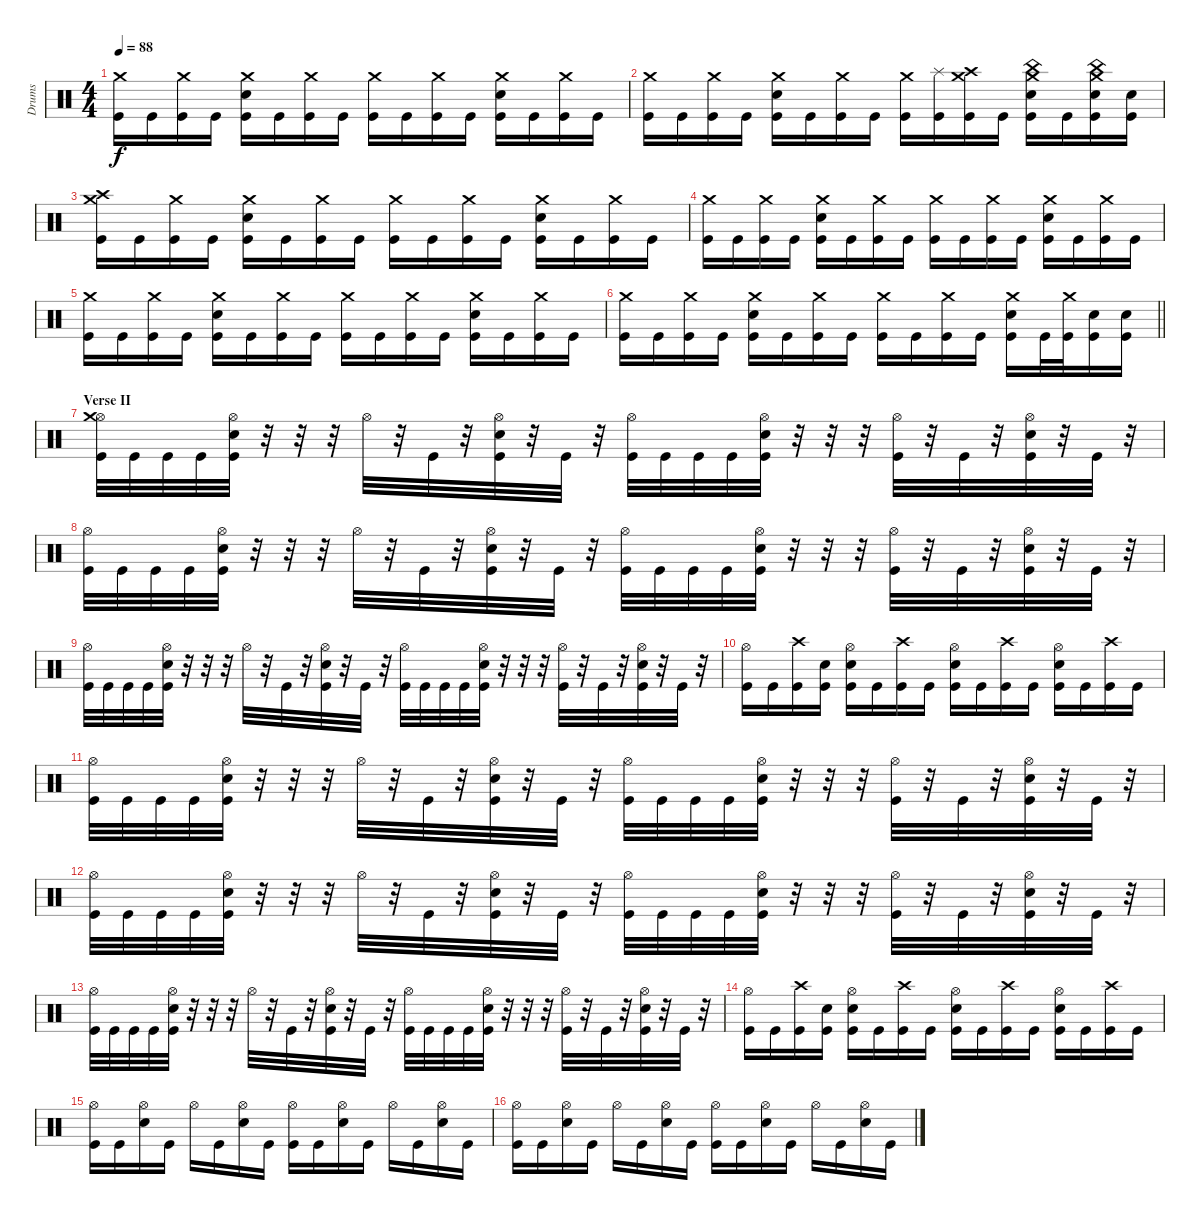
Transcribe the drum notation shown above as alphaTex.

\track ("Drums" "Drums") {instrument percussion}
\staff {score}
\articulation defaults
\ts (4 4)
\tempo 88
\clef neutral
\ks c
("Crash medium (hit)" "Kick (hit)").16{dy f} "Kick (hit)".16 ("Crash medium (hit)" "Kick (hit)").16 "Kick (hit)".16 ("Crash medium (hit)" "Electric Snare (hit)" "Kick (hit)").16 "Kick (hit)".16 ("Crash medium (hit)" "Kick (hit)").16 "Kick (hit)".16 ("Crash medium (hit)" "Kick (hit)").16 "Kick (hit)".16 ("Crash medium (hit)" "Kick (hit)").16 "Kick (hit)".16 ("Crash medium (hit)" "Electric Snare (hit)" "Kick (hit)").16 "Kick (hit)".16 ("Crash medium (hit)" "Kick (hit)").16 "Kick (hit)".16 |
("Crash medium (hit)" "Kick (hit)").16 "Kick (hit)".16 ("Crash medium (hit)" "Kick (hit)").16 "Kick (hit)".16 ("Crash medium (hit)" "Electric Snare (hit)" "Kick (hit)").16 "Kick (hit)".16 ("Crash medium (hit)" "Kick (hit)").16 "Kick (hit)".16 ("Crash medium (hit)" "Kick (hit)").16 ("Splash (hit)" "Kick (hit)").16 ("Crash medium (hit)" "Crash high (hit)" "Kick (hit)").16 "Kick (hit)".16 ("Crash medium (hit)" "China (hit)" "Electric Snare (hit)" "Kick (hit)").16 "Kick (hit)".16 ("Crash medium (hit)" "China (hit)" "Electric Snare (hit)" "Kick (hit)").16 ("Electric Snare (hit)" "Kick (hit)").16 |
("Crash medium (hit)" "Crash high (hit)" "Kick (hit)").16 "Kick (hit)".16 ("Crash medium (hit)" "Kick (hit)").16 "Kick (hit)".16 ("Crash medium (hit)" "Electric Snare (hit)" "Kick (hit)").16 "Kick (hit)".16 ("Crash medium (hit)" "Kick (hit)").16 "Kick (hit)".16 ("Crash medium (hit)" "Kick (hit)").16 "Kick (hit)".16 ("Crash medium (hit)" "Kick (hit)").16 "Kick (hit)".16 ("Crash medium (hit)" "Electric Snare (hit)" "Kick (hit)").16 "Kick (hit)".16 ("Crash medium (hit)" "Kick (hit)").16 "Kick (hit)".16 |
("Crash medium (hit)" "Kick (hit)").16 "Kick (hit)".16 ("Crash medium (hit)" "Kick (hit)").16 "Kick (hit)".16 ("Crash medium (hit)" "Electric Snare (hit)" "Kick (hit)").16 "Kick (hit)".16 ("Crash medium (hit)" "Kick (hit)").16 "Kick (hit)".16 ("Crash medium (hit)" "Kick (hit)").16 "Kick (hit)".16 ("Crash medium (hit)" "Kick (hit)").16 "Kick (hit)".16 ("Crash medium (hit)" "Electric Snare (hit)" "Kick (hit)").16 "Kick (hit)".16 ("Crash medium (hit)" "Kick (hit)").16 "Kick (hit)".16 |
("Crash medium (hit)" "Kick (hit)").16 "Kick (hit)".16 ("Crash medium (hit)" "Kick (hit)").16 "Kick (hit)".16 ("Crash medium (hit)" "Electric Snare (hit)" "Kick (hit)").16 "Kick (hit)".16 ("Crash medium (hit)" "Kick (hit)").16 "Kick (hit)".16 ("Crash medium (hit)" "Kick (hit)").16 "Kick (hit)".16 ("Crash medium (hit)" "Kick (hit)").16 "Kick (hit)".16 ("Crash medium (hit)" "Electric Snare (hit)" "Kick (hit)").16 "Kick (hit)".16 ("Crash medium (hit)" "Kick (hit)").16 "Kick (hit)".16 |
\barLineRight lightlight
("Crash medium (hit)" "Kick (hit)").16 "Kick (hit)".16 ("Crash medium (hit)" "Kick (hit)").16 "Kick (hit)".16 ("Crash medium (hit)" "Electric Snare (hit)" "Kick (hit)").16 "Kick (hit)".16 ("Crash medium (hit)" "Kick (hit)").16 "Kick (hit)".16 ("Crash medium (hit)" "Kick (hit)").16 "Kick (hit)".16 ("Crash medium (hit)" "Kick (hit)").16 "Kick (hit)".16 ("Crash medium (hit)" "Electric Snare (hit)" "Kick (hit)").16 "Kick (hit)".32 ("Crash medium (hit)" "Kick (hit)").32 ("Electric Snare (hit)" "Kick (hit)").16 ("Electric Snare (hit)" "Kick (hit)").16 |
\section ("" "Verse II")
("Hi-Hat (open)" "Crash medium (hit)" "Kick (hit)").32 "Kick (hit)".32 "Kick (hit)".32 "Kick (hit)".32 ("Hi-Hat (open)" "Electric Snare (hit)" "Kick (hit)").32 r.32 r.32 r.32 "Hi-Hat (open)".32 r.32 "Kick (hit)".32 r.32 ("Hi-Hat (open)" "Electric Snare (hit)" "Kick (hit)").32 r.32 "Kick (hit)".32 r.32 ("Hi-Hat (open)" "Kick (hit)").32 "Kick (hit)".32 "Kick (hit)".32 "Kick (hit)".32 ("Hi-Hat (open)" "Electric Snare (hit)" "Kick (hit)").32 r.32 r.32 r.32 ("Hi-Hat (open)" "Kick (hit)").32 r.32 "Kick (hit)".32 r.32 ("Hi-Hat (open)" "Electric Snare (hit)" "Kick (hit)").32 r.32 "Kick (hit)".32 r.32 |
("Hi-Hat (open)" "Kick (hit)").32 "Kick (hit)".32 "Kick (hit)".32 "Kick (hit)".32 ("Hi-Hat (open)" "Electric Snare (hit)" "Kick (hit)").32 r.32 r.32 r.32 "Hi-Hat (open)".32 r.32 "Kick (hit)".32 r.32 ("Hi-Hat (open)" "Electric Snare (hit)" "Kick (hit)").32 r.32 "Kick (hit)".32 r.32 ("Hi-Hat (open)" "Kick (hit)").32 "Kick (hit)".32 "Kick (hit)".32 "Kick (hit)".32 ("Hi-Hat (open)" "Electric Snare (hit)" "Kick (hit)").32 r.32 r.32 r.32 ("Hi-Hat (open)" "Kick (hit)").32 r.32 "Kick (hit)".32 r.32 ("Hi-Hat (open)" "Electric Snare (hit)" "Kick (hit)").32 r.32 "Kick (hit)".32 r.32 |
("Hi-Hat (open)" "Kick (hit)").32 "Kick (hit)".32 "Kick (hit)".32 "Kick (hit)".32 ("Hi-Hat (open)" "Electric Snare (hit)" "Kick (hit)").32 r.32 r.32 r.32 "Hi-Hat (open)".32 r.32 "Kick (hit)".32 r.32 ("Hi-Hat (open)" "Electric Snare (hit)" "Kick (hit)").32 r.32 "Kick (hit)".32 r.32 ("Hi-Hat (open)" "Kick (hit)").32 "Kick (hit)".32 "Kick (hit)".32 "Kick (hit)".32 ("Hi-Hat (open)" "Electric Snare (hit)" "Kick (hit)").32 r.32 r.32 r.32 ("Hi-Hat (open)" "Kick (hit)").32 r.32 "Kick (hit)".32 r.32 ("Hi-Hat (open)" "Electric Snare (hit)" "Kick (hit)").32 r.32 "Kick (hit)".32 r.32 |
("Hi-Hat (open)" "Kick (hit)").16 "Kick (hit)".16 ("Crash high (hit)" "Kick (hit)").16 ("Electric Snare (hit)" "Kick (hit)").16 ("Hi-Hat (open)" "Electric Snare (hit)" "Kick (hit)").16 "Kick (hit)".16 ("Crash high (hit)" "Kick (hit)").16 "Kick (hit)".16 ("Hi-Hat (open)" "Electric Snare (hit)" "Kick (hit)").16 "Kick (hit)".16 ("Crash high (hit)" "Kick (hit)").16 "Kick (hit)".16 ("Hi-Hat (open)" "Electric Snare (hit)" "Kick (hit)").16 "Kick (hit)".16 ("Crash high (hit)" "Kick (hit)").16 "Kick (hit)".16 |
("Hi-Hat (open)" "Kick (hit)").32 "Kick (hit)".32 "Kick (hit)".32 "Kick (hit)".32 ("Hi-Hat (open)" "Electric Snare (hit)" "Kick (hit)").32 r.32 r.32 r.32 "Hi-Hat (open)".32 r.32 "Kick (hit)".32 r.32 ("Hi-Hat (open)" "Electric Snare (hit)" "Kick (hit)").32 r.32 "Kick (hit)".32 r.32 ("Hi-Hat (open)" "Kick (hit)").32 "Kick (hit)".32 "Kick (hit)".32 "Kick (hit)".32 ("Hi-Hat (open)" "Electric Snare (hit)" "Kick (hit)").32 r.32 r.32 r.32 ("Hi-Hat (open)" "Kick (hit)").32 r.32 "Kick (hit)".32 r.32 ("Hi-Hat (open)" "Electric Snare (hit)" "Kick (hit)").32 r.32 "Kick (hit)".32 r.32 |
("Hi-Hat (open)" "Kick (hit)").32 "Kick (hit)".32 "Kick (hit)".32 "Kick (hit)".32 ("Hi-Hat (open)" "Electric Snare (hit)" "Kick (hit)").32 r.32 r.32 r.32 "Hi-Hat (open)".32 r.32 "Kick (hit)".32 r.32 ("Hi-Hat (open)" "Electric Snare (hit)" "Kick (hit)").32 r.32 "Kick (hit)".32 r.32 ("Hi-Hat (open)" "Kick (hit)").32 "Kick (hit)".32 "Kick (hit)".32 "Kick (hit)".32 ("Hi-Hat (open)" "Electric Snare (hit)" "Kick (hit)").32 r.32 r.32 r.32 ("Hi-Hat (open)" "Kick (hit)").32 r.32 "Kick (hit)".32 r.32 ("Hi-Hat (open)" "Electric Snare (hit)" "Kick (hit)").32 r.32 "Kick (hit)".32 r.32 |
("Hi-Hat (open)" "Kick (hit)").32 "Kick (hit)".32 "Kick (hit)".32 "Kick (hit)".32 ("Hi-Hat (open)" "Electric Snare (hit)" "Kick (hit)").32 r.32 r.32 r.32 "Hi-Hat (open)".32 r.32 "Kick (hit)".32 r.32 ("Hi-Hat (open)" "Electric Snare (hit)" "Kick (hit)").32 r.32 "Kick (hit)".32 r.32 ("Hi-Hat (open)" "Kick (hit)").32 "Kick (hit)".32 "Kick (hit)".32 "Kick (hit)".32 ("Hi-Hat (open)" "Electric Snare (hit)" "Kick (hit)").32 r.32 r.32 r.32 ("Hi-Hat (open)" "Kick (hit)").32 r.32 "Kick (hit)".32 r.32 ("Hi-Hat (open)" "Electric Snare (hit)" "Kick (hit)").32 r.32 "Kick (hit)".32 r.32 |
("Hi-Hat (open)" "Kick (hit)").16 "Kick (hit)".16 ("Crash high (hit)" "Kick (hit)").16 ("Electric Snare (hit)" "Kick (hit)").16 ("Hi-Hat (open)" "Electric Snare (hit)" "Kick (hit)").16 "Kick (hit)".16 ("Crash high (hit)" "Kick (hit)").16 "Kick (hit)".16 ("Hi-Hat (open)" "Electric Snare (hit)" "Kick (hit)").16 "Kick (hit)".16 ("Crash high (hit)" "Kick (hit)").16 "Kick (hit)".16 ("Hi-Hat (open)" "Electric Snare (hit)" "Kick (hit)").16 "Kick (hit)".16 ("Crash high (hit)" "Kick (hit)").16 "Kick (hit)".16 |
("Hi-Hat (open)" "Kick (hit)").16 "Kick (hit)".16 ("Hi-Hat (open)" "Electric Snare (hit)").16 "Kick (hit)".16 "Hi-Hat (open)".16 "Kick (hit)".16 ("Hi-Hat (open)" "Electric Snare (hit)").16 "Kick (hit)".16 ("Hi-Hat (open)" "Kick (hit)").16 "Kick (hit)".16 ("Hi-Hat (open)" "Electric Snare (hit)").16 "Kick (hit)".16 "Hi-Hat (open)".16 "Kick (hit)".16 ("Hi-Hat (open)" "Electric Snare (hit)").16 "Kick (hit)".16 |
("Hi-Hat (open)" "Kick (hit)").16 "Kick (hit)".16 ("Hi-Hat (open)" "Electric Snare (hit)").16 "Kick (hit)".16 "Hi-Hat (open)".16 "Kick (hit)".16 ("Hi-Hat (open)" "Electric Snare (hit)").16 "Kick (hit)".16 ("Hi-Hat (open)" "Kick (hit)").16 "Kick (hit)".16 ("Hi-Hat (open)" "Electric Snare (hit)").16 "Kick (hit)".16 "Hi-Hat (open)".16 "Kick (hit)".16 ("Hi-Hat (open)" "Electric Snare (hit)").16 "Kick (hit)".16
